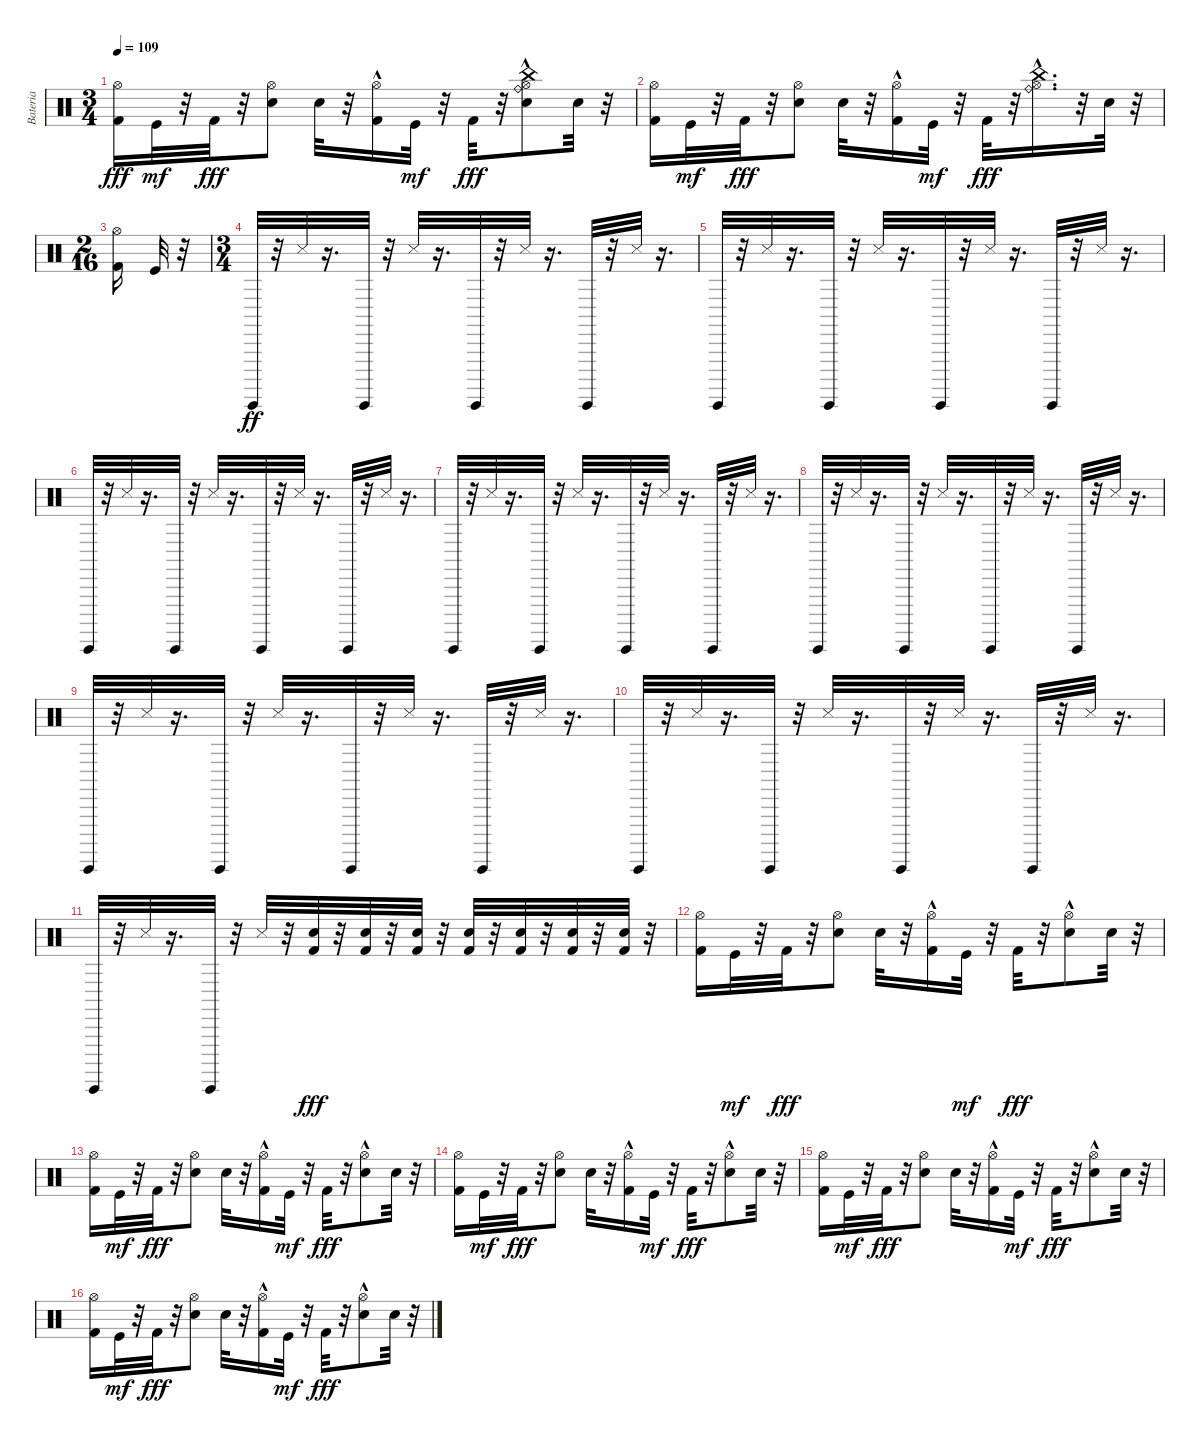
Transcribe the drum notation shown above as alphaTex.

\track ("Bateria" "Bateria") {instrument percussion}
\staff {score}
\articulation defaults
\ts (3 4)
\tempo 109
\clef neutral
\ks c
("Kick (hit) 2" "Hi-Hat (open)").16{dy fff} "Kick (hit)".32{dy mf} r.32 "Kick (hit) 2".32{dy fff} r.32 ("Electric Snare (hit)" "Hi-Hat (open)").8 "Electric Snare (hit)".32 r.32 ("Kick (hit) 2" "Hi-Hat (open)"{hac}).16 "Kick (hit)".32{dy mf} r.32 "Kick (hit) 2".32{dy fff} r.32 ("Ride (bell)" "Electric Snare (hit)" "Hi-Hat (open)"{hac} "China (hit)").8 "Electric Snare (hit)".32 r.32 |
("Kick (hit) 2" "Hi-Hat (open)").16 "Kick (hit)".32{dy mf} r.32 "Kick (hit) 2".32{dy fff} r.32 ("Electric Snare (hit)" "Hi-Hat (open)").8 "Electric Snare (hit)".32 r.32 ("Kick (hit) 2" "Hi-Hat (open)"{hac}).16 "Kick (hit)".32{dy mf} r.32 "Kick (hit) 2".32{dy fff} r.32 ("Ride (bell)" "Hi-Hat (open)"{hac} "China (hit)").16{d} r.32 "Electric Snare (hit)".32 r.32 |
\ts (2 16)
("Hi-Hat (open)" "Kick (hit) 2").16 "Kick (hit)".32 r.32 |
\ts (3 4)
"Guiro (hit)".32{dy ff} r.32 "Metronome (hit)".32 r.16{d} "Guiro (hit)".32 r.32 "Metronome (hit)".32 r.16{d} "Guiro (hit)".32 r.32 "Metronome (hit)".32 r.16{d} "Guiro (hit)".32 r.32 "Metronome (hit)".32 r.16{d} |
"Guiro (hit)".32 r.32 "Metronome (hit)".32 r.16{d} "Guiro (hit)".32 r.32 "Metronome (hit)".32 r.16{d} "Guiro (hit)".32 r.32 "Metronome (hit)".32 r.16{d} "Guiro (hit)".32 r.32 "Metronome (hit)".32 r.16{d} |
"Guiro (hit)".32 r.32 "Metronome (hit)".32 r.16{d} "Guiro (hit)".32 r.32 "Metronome (hit)".32 r.16{d} "Guiro (hit)".32 r.32 "Metronome (hit)".32 r.16{d} "Guiro (hit)".32 r.32 "Metronome (hit)".32 r.16{d} |
"Guiro (hit)".32 r.32 "Metronome (hit)".32 r.16{d} "Guiro (hit)".32 r.32 "Metronome (hit)".32 r.16{d} "Guiro (hit)".32 r.32 "Metronome (hit)".32 r.16{d} "Guiro (hit)".32 r.32 "Metronome (hit)".32 r.16{d} |
"Guiro (hit)".32 r.32 "Metronome (hit)".32 r.16{d} "Guiro (hit)".32 r.32 "Metronome (hit)".32 r.16{d} "Guiro (hit)".32 r.32 "Metronome (hit)".32 r.16{d} "Guiro (hit)".32 r.32 "Metronome (hit)".32 r.16{d} |
"Guiro (hit)".32 r.32 "Metronome (hit)".32 r.16{d} "Guiro (hit)".32 r.32 "Metronome (hit)".32 r.16{d} "Guiro (hit)".32 r.32 "Metronome (hit)".32 r.16{d} "Guiro (hit)".32 r.32 "Metronome (hit)".32 r.16{d} |
"Guiro (hit)".32 r.32 "Metronome (hit)".32 r.16{d} "Guiro (hit)".32 r.32 "Metronome (hit)".32 r.16{d} "Guiro (hit)".32 r.32 "Metronome (hit)".32 r.16{d} "Guiro (hit)".32 r.32 "Metronome (hit)".32 r.16{d} |
"Guiro (hit)".32 r.32 "Metronome (hit)".32 r.16{d} "Guiro (hit)".32 r.32 "Metronome (hit)".32 r.32 ("Electric Snare (hit)" "Kick (hit) 2").32{dy fff} r.32 ("Electric Snare (hit)" "Kick (hit) 2").32 r.32 ("Kick (hit) 2" "Electric Snare (hit)").32 r.32 ("Kick (hit) 2" "Electric Snare (hit)").32 r.32 ("Kick (hit) 2" "Electric Snare (hit)").32 r.32 ("Kick (hit) 2" "Electric Snare (hit)").32 r.32 ("Kick (hit) 2" "Electric Snare (hit)").32 r.32 |
("Kick (hit) 2" "Hi-Hat (open)").16 "Kick (hit)".32{dy mf} r.32 "Kick (hit) 2".32{dy fff} r.32 ("Electric Snare (hit)" "Hi-Hat (open)").8 "Electric Snare (hit)".32 r.32 ("Kick (hit) 2" "Hi-Hat (open)"{hac}).16 "Kick (hit)".32{dy mf} r.32 "Kick (hit) 2".32{dy fff} r.32 ("Electric Snare (hit)" "Hi-Hat (open)"{hac}).8 "Electric Snare (hit)".32 r.32 |
("Kick (hit) 2" "Hi-Hat (open)").16 "Kick (hit)".32{dy mf} r.32 "Kick (hit) 2".32{dy fff} r.32 ("Electric Snare (hit)" "Hi-Hat (open)").8 "Electric Snare (hit)".32 r.32 ("Kick (hit) 2" "Hi-Hat (open)"{hac}).16 "Kick (hit)".32{dy mf} r.32 "Kick (hit) 2".32{dy fff} r.32 ("Electric Snare (hit)" "Hi-Hat (open)"{hac}).8 "Electric Snare (hit)".32 r.32 |
("Kick (hit) 2" "Hi-Hat (open)").16 "Kick (hit)".32{dy mf} r.32 "Kick (hit) 2".32{dy fff} r.32 ("Electric Snare (hit)" "Hi-Hat (open)").8 "Electric Snare (hit)".32 r.32 ("Kick (hit) 2" "Hi-Hat (open)"{hac}).16 "Kick (hit)".32{dy mf} r.32 "Kick (hit) 2".32{dy fff} r.32 ("Electric Snare (hit)" "Hi-Hat (open)"{hac}).8 "Electric Snare (hit)".32 r.32 |
("Kick (hit) 2" "Hi-Hat (open)").16 "Kick (hit)".32{dy mf} r.32 "Kick (hit) 2".32{dy fff} r.32 ("Electric Snare (hit)" "Hi-Hat (open)").8 "Electric Snare (hit)".32 r.32 ("Kick (hit) 2" "Hi-Hat (open)"{hac}).16 "Kick (hit)".32{dy mf} r.32 "Kick (hit) 2".32{dy fff} r.32 ("Electric Snare (hit)" "Hi-Hat (open)"{hac}).8 "Electric Snare (hit)".32 r.32 |
("Kick (hit) 2" "Hi-Hat (open)").16 "Kick (hit)".32{dy mf} r.32 "Kick (hit) 2".32{dy fff} r.32 ("Electric Snare (hit)" "Hi-Hat (open)").8 "Electric Snare (hit)".32 r.32 ("Kick (hit) 2" "Hi-Hat (open)"{hac}).16 "Kick (hit)".32{dy mf} r.32 "Kick (hit) 2".32{dy fff} r.32 ("Electric Snare (hit)" "Hi-Hat (open)"{hac}).8 "Electric Snare (hit)".32 r.32
